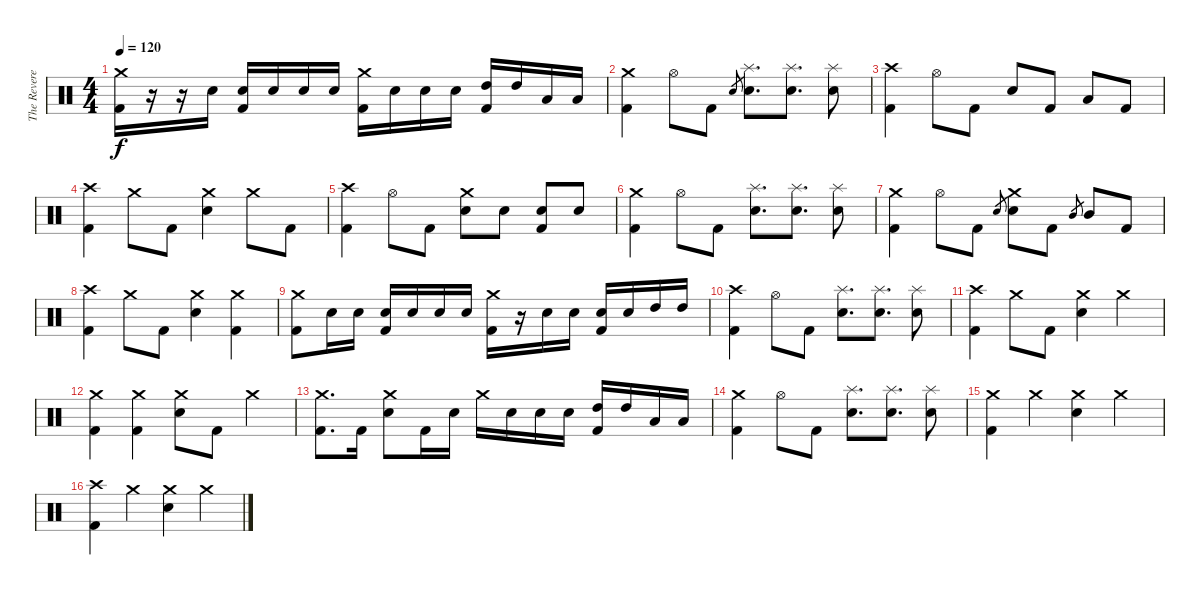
\track ("The Reverend" "The Revere") {instrument percussion}
\staff {score}
\articulation defaults
\ts (4 4)
\tempo 120
\clef neutral
\ks c
("Crash medium (hit)" "Kick (hit) 2").16{dy f} r.16 r.16 "Electric Snare (hit)".16 ("Electric Snare (hit)" "Kick (hit) 2").16 "Electric Snare (hit)".16 "Electric Snare (hit)".16 "Electric Snare (hit)".16 ("Crash medium (hit)" "Kick (hit) 2").16 "Electric Snare (hit)".16 "Electric Snare (hit)".16 "Electric Snare (hit)".16 ("High Tom (hit)" "Kick (hit) 2").16 "High Tom (hit)".16 "Low Tom (hit)".16 "Low Tom (hit)".16 |
("Crash medium (hit)" "Kick (hit) 2").4 "Hi-Hat (open)".8 "Kick (hit) 2".8 "Electric Snare (hit)".8{gr} ("Splash (hit)" "Electric Snare (hit)").8{d} ("Splash (hit)" "Electric Snare (hit)").8{d} ("Splash (hit)" "Electric Snare (hit)").8 |
("Crash high (hit)" "Kick (hit) 2").4 "Hi-Hat (open)".8 "Kick (hit) 2".8 "Electric Snare (hit)".8 "Kick (hit) 2".8 "Low Tom (hit)".8 "Kick (hit) 2".8 |
("Crash high (hit)" "Kick (hit) 2").4 "Crash medium (hit)".8 "Kick (hit) 2".8 ("Crash medium (hit)" "Electric Snare (hit)").4 "Crash medium (hit)".8 "Kick (hit) 2".8 |
("Crash high (hit)" "Kick (hit) 2").4 "Hi-Hat (open)".8 "Kick (hit) 2".8 ("Crash medium (hit)" "Electric Snare (hit)").8 "Electric Snare (hit)".8 ("Electric Snare (hit)" "Kick (hit) 2").8 "Electric Snare (hit)".8 |
("Crash medium (hit)" "Kick (hit) 2").4 "Hi-Hat (open)".8 "Kick (hit) 2".8 ("Splash (hit)" "Electric Snare (hit)").8{d} ("Splash (hit)" "Electric Snare (hit)").8{d} ("Splash (hit)" "Electric Snare (hit)").8 |
("Crash medium (hit)" "Kick (hit) 2").4 "Hi-Hat (open)".8 "Kick (hit) 2".8 "Electric Snare (hit)".8{gr} ("Crash medium (hit)" "Electric Snare (hit)").8 "Kick (hit) 2".8 "Mid Tom (hit)".8{gr} "Mid Tom (hit)".8 "Kick (hit) 2".8 |
("Crash high (hit)" "Kick (hit) 2").4 "Crash medium (hit)".8 "Kick (hit) 2".8 ("Crash medium (hit)" "Electric Snare (hit)").4 ("Crash medium (hit)" "Kick (hit) 2").4 |
("Crash medium (hit)" "Kick (hit) 2").8 "Electric Snare (hit)".16 "Electric Snare (hit)".16 ("Electric Snare (hit)" "Kick (hit) 2").16 "Electric Snare (hit)".16 "Electric Snare (hit)".16 "Electric Snare (hit)".16 ("Crash medium (hit)" "Kick (hit) 2").16 r.16 "Electric Snare (hit)".16 "Electric Snare (hit)".16 ("Electric Snare (hit)" "Kick (hit) 2").16 "Electric Snare (hit)".16 "High Tom (hit)".16 "High Tom (hit)".16 |
("Crash high (hit)" "Kick (hit) 2").4 "Hi-Hat (open)".8 "Kick (hit) 2".8 ("Splash (hit)" "Electric Snare (hit)").8{d} ("Splash (hit)" "Electric Snare (hit)").8{d} ("Splash (hit)" "Electric Snare (hit)").8 |
("Crash high (hit)" "Kick (hit) 2").4 "Crash medium (hit)".8 "Kick (hit) 2".8 ("Crash medium (hit)" "Electric Snare (hit)").4 "Crash medium (hit)".4 |
("Crash medium (hit)" "Kick (hit) 2").4 ("Crash medium (hit)" "Kick (hit) 2").4 ("Crash medium (hit)" "Electric Snare (hit)").8 "Kick (hit) 2".8 "Crash medium (hit)".4 |
("Crash medium (hit)" "Kick (hit) 2").8{d} "Kick (hit) 2".16 ("Crash medium (hit)" "Electric Snare (hit)").8 "Kick (hit) 2".16 "Electric Snare (hit)".16 "Crash medium (hit)".16 "Electric Snare (hit)".16 "Electric Snare (hit)".16 "Electric Snare (hit)".16 ("High Tom (hit)" "Kick (hit) 2").16 "High Tom (hit)".16 "Low Tom (hit)".16 "Low Tom (hit)".16 |
("Crash medium (hit)" "Kick (hit) 2").4 "Hi-Hat (open)".8 "Kick (hit) 2".8 ("Splash (hit)" "Electric Snare (hit)").8{d} ("Splash (hit)" "Electric Snare (hit)").8{d} ("Splash (hit)" "Electric Snare (hit)").8 |
("Crash medium (hit)" "Kick (hit) 2").4 "Crash medium (hit)".4 ("Crash medium (hit)" "Electric Snare (hit)").4 "Crash medium (hit)".4 |
("Crash high (hit)" "Kick (hit) 2").4 "Crash medium (hit)".4 ("Crash medium (hit)" "Electric Snare (hit)").4 "Crash medium (hit)".4
